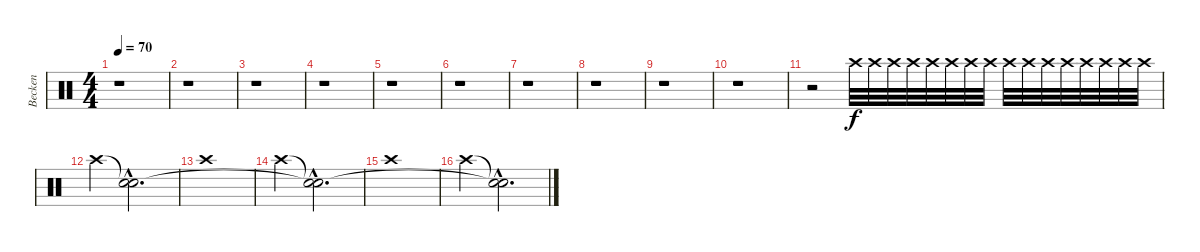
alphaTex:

\track ("Becken" "Becken") {instrument percussion}
\staff {score}
\articulation defaults
\ts (4 4)
\tempo 70
\clef neutral
\ks c
r.1{dy f} |
r.1 |
r.1 |
r.1 |
r.1 |
r.1 |
r.1 |
r.1 |
r.1 |
r.1 |
r.2{volume 0} "Crash high (hit)".32{volume 16} "Crash high (hit)".32 "Crash high (hit)".32 "Crash high (hit)".32 "Crash high (hit)".32 "Crash high (hit)".32 "Crash high (hit)".32 "Crash high (hit)".32 "Crash high (hit)".32 "Crash high (hit)".32 "Crash high (hit)".32 "Crash high (hit)".32 "Crash high (hit)".32 "Crash high (hit)".32 "Crash high (hit)".32 "Crash high (hit)".32 |
"Crash high (hit)".4{volume 16} ("Snare (hit)"{hac t} "Snare (hit)"{hac}).2{d} |
"Crash high (hit)".1{volume 12} |
"Crash high (hit)".4 ("Snare (hit)"{hac t} "Snare (hit)"{hac t}).2{d} |
"Crash high (hit)".1 |
"Crash high (hit)".4 ("Snare (hit)"{hac t} "Snare (hit)"{hac t}).2{d}
